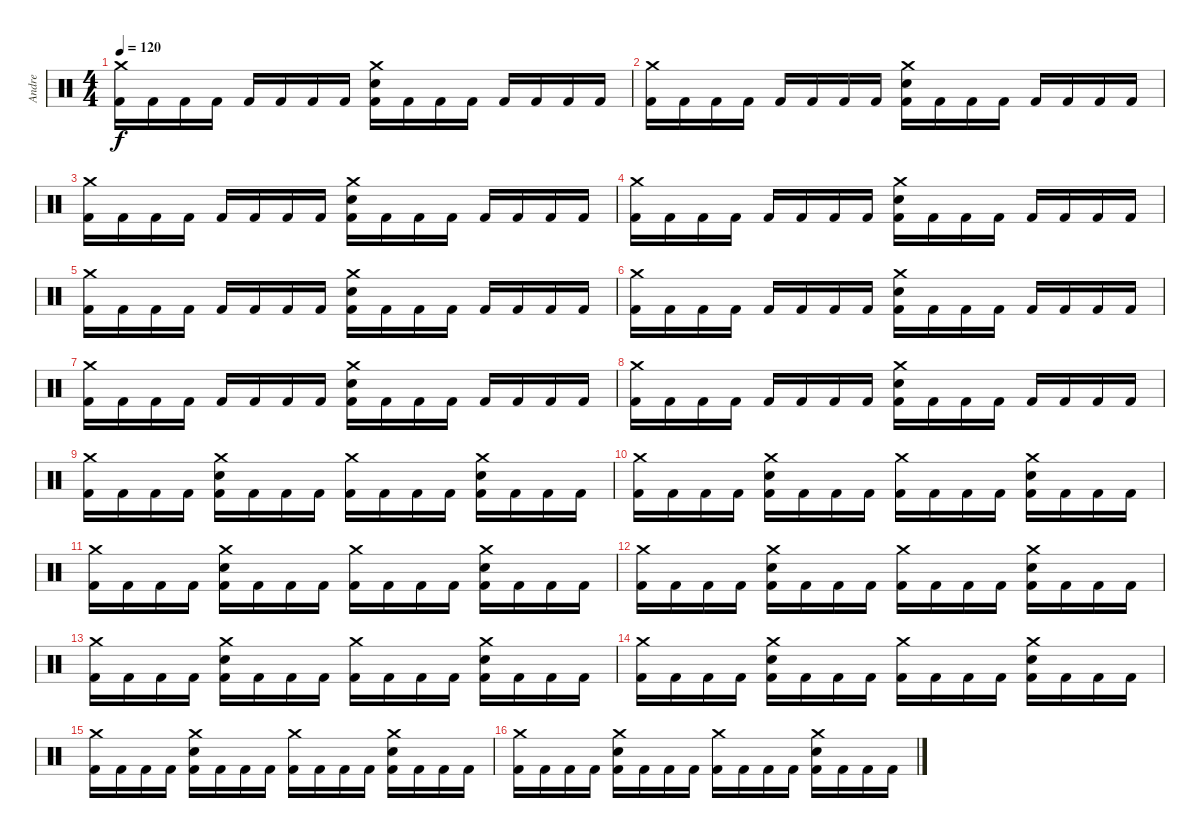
\track ("Andre" "Andre") {instrument percussion}
\staff {score}
\articulation defaults
\ts (4 4)
\tempo 120
\clef neutral
\ks c
("Crash medium (hit)" "Kick (hit) 2").16{dy f} "Kick (hit) 2".16 "Kick (hit) 2".16 "Kick (hit) 2".16 "Kick (hit) 2".16 "Kick (hit) 2".16 "Kick (hit) 2".16 "Kick (hit) 2".16 ("Crash medium (hit)" "Snare (hit) 2" "Kick (hit) 2").16 "Kick (hit) 2".16 "Kick (hit) 2".16 "Kick (hit) 2".16 "Kick (hit) 2".16 "Kick (hit) 2".16 "Kick (hit) 2".16 "Kick (hit) 2".16 |
("Crash medium (hit)" "Kick (hit) 2").16 "Kick (hit) 2".16 "Kick (hit) 2".16 "Kick (hit) 2".16 "Kick (hit) 2".16 "Kick (hit) 2".16 "Kick (hit) 2".16 "Kick (hit) 2".16 ("Crash medium (hit)" "Snare (hit) 2" "Kick (hit) 2").16 "Kick (hit) 2".16 "Kick (hit) 2".16 "Kick (hit) 2".16 "Kick (hit) 2".16 "Kick (hit) 2".16 "Kick (hit) 2".16 "Kick (hit) 2".16 |
("Crash medium (hit)" "Kick (hit) 2").16 "Kick (hit) 2".16 "Kick (hit) 2".16 "Kick (hit) 2".16 "Kick (hit) 2".16 "Kick (hit) 2".16 "Kick (hit) 2".16 "Kick (hit) 2".16 ("Crash medium (hit)" "Snare (hit) 2" "Kick (hit) 2").16 "Kick (hit) 2".16 "Kick (hit) 2".16 "Kick (hit) 2".16 "Kick (hit) 2".16 "Kick (hit) 2".16 "Kick (hit) 2".16 "Kick (hit) 2".16 |
("Crash medium (hit)" "Kick (hit) 2").16 "Kick (hit) 2".16 "Kick (hit) 2".16 "Kick (hit) 2".16 "Kick (hit) 2".16 "Kick (hit) 2".16 "Kick (hit) 2".16 "Kick (hit) 2".16 ("Crash medium (hit)" "Snare (hit) 2" "Kick (hit) 2").16 "Kick (hit) 2".16 "Kick (hit) 2".16 "Kick (hit) 2".16 "Kick (hit) 2".16 "Kick (hit) 2".16 "Kick (hit) 2".16 "Kick (hit) 2".16 |
("Crash medium (hit)" "Kick (hit) 2").16 "Kick (hit) 2".16 "Kick (hit) 2".16 "Kick (hit) 2".16 "Kick (hit) 2".16 "Kick (hit) 2".16 "Kick (hit) 2".16 "Kick (hit) 2".16 ("Crash medium (hit)" "Snare (hit) 2" "Kick (hit) 2").16 "Kick (hit) 2".16 "Kick (hit) 2".16 "Kick (hit) 2".16 "Kick (hit) 2".16 "Kick (hit) 2".16 "Kick (hit) 2".16 "Kick (hit) 2".16 |
("Crash medium (hit)" "Kick (hit) 2").16 "Kick (hit) 2".16 "Kick (hit) 2".16 "Kick (hit) 2".16 "Kick (hit) 2".16 "Kick (hit) 2".16 "Kick (hit) 2".16 "Kick (hit) 2".16 ("Crash medium (hit)" "Snare (hit) 2" "Kick (hit) 2").16 "Kick (hit) 2".16 "Kick (hit) 2".16 "Kick (hit) 2".16 "Kick (hit) 2".16 "Kick (hit) 2".16 "Kick (hit) 2".16 "Kick (hit) 2".16 |
("Crash medium (hit)" "Kick (hit) 2").16 "Kick (hit) 2".16 "Kick (hit) 2".16 "Kick (hit) 2".16 "Kick (hit) 2".16 "Kick (hit) 2".16 "Kick (hit) 2".16 "Kick (hit) 2".16 ("Crash medium (hit)" "Snare (hit) 2" "Kick (hit) 2").16 "Kick (hit) 2".16 "Kick (hit) 2".16 "Kick (hit) 2".16 "Kick (hit) 2".16 "Kick (hit) 2".16 "Kick (hit) 2".16 "Kick (hit) 2".16 |
("Crash medium (hit)" "Kick (hit) 2").16 "Kick (hit) 2".16 "Kick (hit) 2".16 "Kick (hit) 2".16 "Kick (hit) 2".16 "Kick (hit) 2".16 "Kick (hit) 2".16 "Kick (hit) 2".16 ("Crash medium (hit)" "Snare (hit) 2" "Kick (hit) 2").16 "Kick (hit) 2".16 "Kick (hit) 2".16 "Kick (hit) 2".16 "Kick (hit) 2".16 "Kick (hit) 2".16 "Kick (hit) 2".16 "Kick (hit) 2".16 |
("Crash medium (hit)" "Kick (hit) 2").16 "Kick (hit) 2".16 "Kick (hit) 2".16 "Kick (hit) 2".16 ("Crash medium (hit)" "Snare (hit) 2" "Kick (hit) 2").16 "Kick (hit) 2".16 "Kick (hit) 2".16 "Kick (hit) 2".16 ("Crash medium (hit)" "Kick (hit) 2").16 "Kick (hit) 2".16 "Kick (hit) 2".16 "Kick (hit) 2".16 ("Crash medium (hit)" "Snare (hit) 2" "Kick (hit) 2").16 "Kick (hit) 2".16 "Kick (hit) 2".16 "Kick (hit) 2".16 |
("Crash medium (hit)" "Kick (hit) 2").16 "Kick (hit) 2".16 "Kick (hit) 2".16 "Kick (hit) 2".16 ("Crash medium (hit)" "Snare (hit) 2" "Kick (hit) 2").16 "Kick (hit) 2".16 "Kick (hit) 2".16 "Kick (hit) 2".16 ("Crash medium (hit)" "Kick (hit) 2").16 "Kick (hit) 2".16 "Kick (hit) 2".16 "Kick (hit) 2".16 ("Crash medium (hit)" "Snare (hit) 2" "Kick (hit) 2").16 "Kick (hit) 2".16 "Kick (hit) 2".16 "Kick (hit) 2".16 |
("Crash medium (hit)" "Kick (hit) 2").16 "Kick (hit) 2".16 "Kick (hit) 2".16 "Kick (hit) 2".16 ("Crash medium (hit)" "Snare (hit) 2" "Kick (hit) 2").16 "Kick (hit) 2".16 "Kick (hit) 2".16 "Kick (hit) 2".16 ("Crash medium (hit)" "Kick (hit) 2").16 "Kick (hit) 2".16 "Kick (hit) 2".16 "Kick (hit) 2".16 ("Crash medium (hit)" "Snare (hit) 2" "Kick (hit) 2").16 "Kick (hit) 2".16 "Kick (hit) 2".16 "Kick (hit) 2".16 |
("Crash medium (hit)" "Kick (hit) 2").16 "Kick (hit) 2".16 "Kick (hit) 2".16 "Kick (hit) 2".16 ("Crash medium (hit)" "Snare (hit) 2" "Kick (hit) 2").16 "Kick (hit) 2".16 "Kick (hit) 2".16 "Kick (hit) 2".16 ("Crash medium (hit)" "Kick (hit) 2").16 "Kick (hit) 2".16 "Kick (hit) 2".16 "Kick (hit) 2".16 ("Crash medium (hit)" "Snare (hit) 2" "Kick (hit) 2").16 "Kick (hit) 2".16 "Kick (hit) 2".16 "Kick (hit) 2".16 |
("Crash medium (hit)" "Kick (hit) 2").16 "Kick (hit) 2".16 "Kick (hit) 2".16 "Kick (hit) 2".16 ("Crash medium (hit)" "Snare (hit) 2" "Kick (hit) 2").16 "Kick (hit) 2".16 "Kick (hit) 2".16 "Kick (hit) 2".16 ("Crash medium (hit)" "Kick (hit) 2").16 "Kick (hit) 2".16 "Kick (hit) 2".16 "Kick (hit) 2".16 ("Crash medium (hit)" "Snare (hit) 2" "Kick (hit) 2").16 "Kick (hit) 2".16 "Kick (hit) 2".16 "Kick (hit) 2".16 |
("Crash medium (hit)" "Kick (hit) 2").16 "Kick (hit) 2".16 "Kick (hit) 2".16 "Kick (hit) 2".16 ("Crash medium (hit)" "Snare (hit) 2" "Kick (hit) 2").16 "Kick (hit) 2".16 "Kick (hit) 2".16 "Kick (hit) 2".16 ("Crash medium (hit)" "Kick (hit) 2").16 "Kick (hit) 2".16 "Kick (hit) 2".16 "Kick (hit) 2".16 ("Crash medium (hit)" "Snare (hit) 2" "Kick (hit) 2").16 "Kick (hit) 2".16 "Kick (hit) 2".16 "Kick (hit) 2".16 |
("Crash medium (hit)" "Kick (hit) 2").16 "Kick (hit) 2".16 "Kick (hit) 2".16 "Kick (hit) 2".16 ("Crash medium (hit)" "Snare (hit) 2" "Kick (hit) 2").16 "Kick (hit) 2".16 "Kick (hit) 2".16 "Kick (hit) 2".16 ("Crash medium (hit)" "Kick (hit) 2").16 "Kick (hit) 2".16 "Kick (hit) 2".16 "Kick (hit) 2".16 ("Crash medium (hit)" "Snare (hit) 2" "Kick (hit) 2").16 "Kick (hit) 2".16 "Kick (hit) 2".16 "Kick (hit) 2".16 |
("Crash medium (hit)" "Kick (hit) 2").16 "Kick (hit) 2".16 "Kick (hit) 2".16 "Kick (hit) 2".16 ("Crash medium (hit)" "Snare (hit) 2" "Kick (hit) 2").16 "Kick (hit) 2".16 "Kick (hit) 2".16 "Kick (hit) 2".16 ("Crash medium (hit)" "Kick (hit) 2").16 "Kick (hit) 2".16 "Kick (hit) 2".16 "Kick (hit) 2".16 ("Crash medium (hit)" "Snare (hit) 2" "Kick (hit) 2").16 "Kick (hit) 2".16 "Kick (hit) 2".16 "Kick (hit) 2".16
